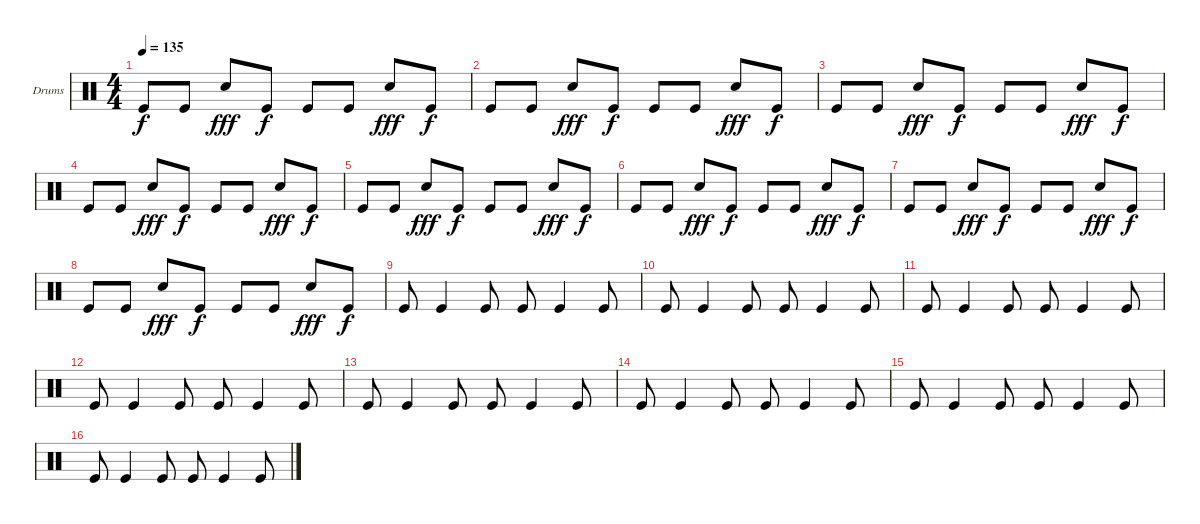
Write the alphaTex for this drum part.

\defaultSystemsLayout 4
\bracketExtendMode groupsimilarinstruments
\firstSystemTrackNameOrientation horizontal
\otherSystemsTrackNameOrientation horizontal
\track ("Helders" "Drums") {instrument percussion}
\staff {score}
\articulation defaults
\ts (4 4)
\tempo 135
\clef neutral
\ks c "Kick (hit)".8{dy f} "Kick (hit)".8 "Snare (hit) 2".8{dy fff} "Kick (hit)".8{dy f} "Kick (hit)".8 "Kick (hit)".8 "Snare (hit) 2".8{dy fff} "Kick (hit)".8{dy f}
|
"Kick (hit)".8 "Kick (hit)".8 "Snare (hit) 2".8{dy fff} "Kick (hit)".8{dy f} "Kick (hit)".8 "Kick (hit)".8 "Snare (hit) 2".8{dy fff} "Kick (hit)".8{dy f} |
"Kick (hit)".8 "Kick (hit)".8 "Snare (hit) 2".8{dy fff} "Kick (hit)".8{dy f} "Kick (hit)".8 "Kick (hit)".8 "Snare (hit) 2".8{dy fff} "Kick (hit)".8{dy f} |
"Kick (hit)".8 "Kick (hit)".8 "Snare (hit) 2".8{dy fff} "Kick (hit)".8{dy f} "Kick (hit)".8 "Kick (hit)".8 "Snare (hit) 2".8{dy fff} "Kick (hit)".8{dy f} |
"Kick (hit)".8 "Kick (hit)".8 "Snare (hit) 2".8{dy fff} "Kick (hit)".8{dy f} "Kick (hit)".8 "Kick (hit)".8 "Snare (hit) 2".8{dy fff} "Kick (hit)".8{dy f} |
"Kick (hit)".8 "Kick (hit)".8 "Snare (hit) 2".8{dy fff} "Kick (hit)".8{dy f} "Kick (hit)".8 "Kick (hit)".8 "Snare (hit) 2".8{dy fff} "Kick (hit)".8{dy f} |
"Kick (hit)".8 "Kick (hit)".8 "Snare (hit) 2".8{dy fff} "Kick (hit)".8{dy f} "Kick (hit)".8 "Kick (hit)".8 "Snare (hit) 2".8{dy fff} "Kick (hit)".8{dy f} |
"Kick (hit)".8 "Kick (hit)".8 "Snare (hit) 2".8{dy fff} "Kick (hit)".8{dy f} "Kick (hit)".8 "Kick (hit)".8 "Snare (hit) 2".8{dy fff} "Kick (hit)".8{dy f} |
"Kick (hit)".8 "Kick (hit)".4 "Kick (hit)".8 "Kick (hit)".8 "Kick (hit)".4 "Kick (hit)".8 |
"Kick (hit)".8 "Kick (hit)".4 "Kick (hit)".8 "Kick (hit)".8 "Kick (hit)".4 "Kick (hit)".8 |
"Kick (hit)".8 "Kick (hit)".4 "Kick (hit)".8 "Kick (hit)".8 "Kick (hit)".4 "Kick (hit)".8 |
"Kick (hit)".8 "Kick (hit)".4 "Kick (hit)".8 "Kick (hit)".8 "Kick (hit)".4 "Kick (hit)".8 |
"Kick (hit)".8 "Kick (hit)".4 "Kick (hit)".8 "Kick (hit)".8 "Kick (hit)".4 "Kick (hit)".8 |
"Kick (hit)".8 "Kick (hit)".4 "Kick (hit)".8 "Kick (hit)".8 "Kick (hit)".4 "Kick (hit)".8 |
"Kick (hit)".8 "Kick (hit)".4 "Kick (hit)".8 "Kick (hit)".8 "Kick (hit)".4 "Kick (hit)".8 |
"Kick (hit)".8 "Kick (hit)".4 "Kick (hit)".8 "Kick (hit)".8 "Kick (hit)".4 "Kick (hit)".8
